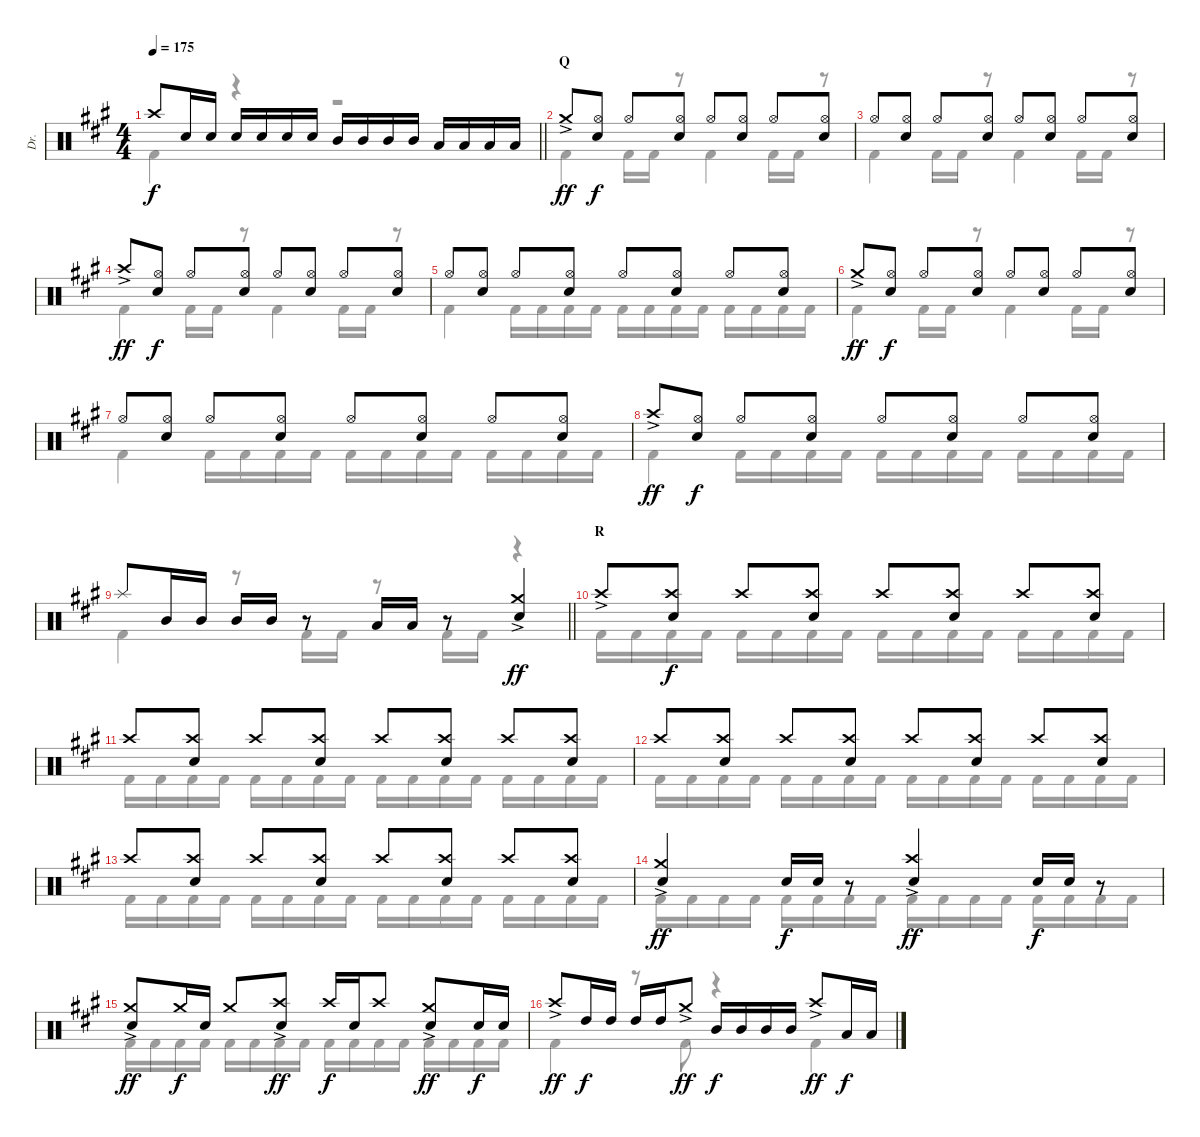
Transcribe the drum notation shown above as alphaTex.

\track ("Dr." "Dr.") {instrument percussion}
\staff {score}
\articulation defaults
\voice
\ts (4 4)
\tempo 175
\clef neutral
\barLineRight lightlight
\ks f#minor "Crash high (hit)".8{dy f} "Electric Snare (hit)".16 "Electric Snare (hit)".16 "Electric Snare (hit)".16 "Electric Snare (hit)".16 "Electric Snare (hit)".16 "Electric Snare (hit)".16 "Mid Tom (hit)".16 "Mid Tom (hit)".16 "Mid Tom (hit)".16 "Mid Tom (hit)".16 "Low Tom (hit)".16 "Low Tom (hit)".16 "Low Tom (hit)".16 "Low Tom (hit)".16
|
\section ("" "Q")
"Crash medium (hit)"{ac}.8{dy ff} ("Hi-Hat (open)" "Electric Snare (hit)").8{dy f} "Hi-Hat (open)".8 ("Hi-Hat (open)" "Electric Snare (hit)").8 "Hi-Hat (open)".8 ("Hi-Hat (open)" "Electric Snare (hit)").8 "Hi-Hat (open)".8 ("Hi-Hat (open)" "Electric Snare (hit)").8 |
"Hi-Hat (open)".8 ("Hi-Hat (open)" "Electric Snare (hit)").8 "Hi-Hat (open)".8 ("Hi-Hat (open)" "Electric Snare (hit)").8 "Hi-Hat (open)".8 ("Hi-Hat (open)" "Electric Snare (hit)").8 "Hi-Hat (open)".8 ("Hi-Hat (open)" "Electric Snare (hit)").8 |
"Crash high (hit)"{ac}.8{dy ff} ("Hi-Hat (open)" "Electric Snare (hit)").8{dy f} "Hi-Hat (open)".8 ("Hi-Hat (open)" "Electric Snare (hit)").8 "Hi-Hat (open)".8 ("Hi-Hat (open)" "Electric Snare (hit)").8 "Hi-Hat (open)".8 ("Hi-Hat (open)" "Electric Snare (hit)").8 |
"Hi-Hat (open)".8 ("Hi-Hat (open)" "Electric Snare (hit)").8 "Hi-Hat (open)".8 ("Hi-Hat (open)" "Electric Snare (hit)").8 "Hi-Hat (open)".8 ("Hi-Hat (open)" "Electric Snare (hit)").8 "Hi-Hat (open)".8 ("Hi-Hat (open)" "Electric Snare (hit)").8 |
"Crash medium (hit)"{ac}.8{dy ff} ("Hi-Hat (open)" "Electric Snare (hit)").8{dy f} "Hi-Hat (open)".8 ("Hi-Hat (open)" "Electric Snare (hit)").8 "Hi-Hat (open)".8 ("Hi-Hat (open)" "Electric Snare (hit)").8 "Hi-Hat (open)".8 ("Hi-Hat (open)" "Electric Snare (hit)").8 |
"Hi-Hat (open)".8 ("Hi-Hat (open)" "Electric Snare (hit)").8 "Hi-Hat (open)".8 ("Hi-Hat (open)" "Electric Snare (hit)").8 "Hi-Hat (open)".8 ("Hi-Hat (open)" "Electric Snare (hit)").8 "Hi-Hat (open)".8 ("Hi-Hat (open)" "Electric Snare (hit)").8 |
"Crash high (hit)"{ac}.8{dy ff} ("Hi-Hat (open)" "Electric Snare (hit)").8{dy f} "Hi-Hat (open)".8 ("Hi-Hat (open)" "Electric Snare (hit)").8 "Hi-Hat (open)".8 ("Hi-Hat (open)" "Electric Snare (hit)").8 "Hi-Hat (open)".8 ("Hi-Hat (open)" "Electric Snare (hit)").8 |
\barLineRight lightlight "Splash (hit)".8 "Mid Tom (hit)".16 "Mid Tom (hit)".16 "Mid Tom (hit)".16 "Mid Tom (hit)".16
r.8 "Low Tom (hit)".16 "Low Tom (hit)".16 r.8 ("Crash medium (hit)"{ac} "Electric Snare (hit)").4{dy ff} |
\section ("" "R")
"Crash high (hit)"{ac}.8 ("Crash high (hit)" "Electric Snare (hit)").8{dy f} "Crash high (hit)".8 ("Crash high (hit)" "Electric Snare (hit)").8 "Crash high (hit)".8 ("Crash high (hit)" "Electric Snare (hit)").8 "Crash high (hit)".8 ("Crash high (hit)" "Electric Snare (hit)").8 |
"Crash high (hit)".8 ("Crash high (hit)" "Electric Snare (hit)").8 "Crash high (hit)".8 ("Crash high (hit)" "Electric Snare (hit)").8 "Crash high (hit)".8 ("Crash high (hit)" "Electric Snare (hit)").8 "Crash high (hit)".8 ("Crash high (hit)" "Electric Snare (hit)").8 |
"Crash high (hit)".8 ("Crash high (hit)" "Electric Snare (hit)").8 "Crash high (hit)".8 ("Crash high (hit)" "Electric Snare (hit)").8 "Crash high (hit)".8 ("Crash high (hit)" "Electric Snare (hit)").8 "Crash high (hit)".8 ("Crash high (hit)" "Electric Snare (hit)").8 |
"Crash high (hit)".8 ("Crash high (hit)" "Electric Snare (hit)").8 "Crash high (hit)".8 ("Crash high (hit)" "Electric Snare (hit)").8 "Crash high (hit)".8 ("Crash high (hit)" "Electric Snare (hit)").8 "Crash high (hit)".8 ("Crash high (hit)" "Electric Snare (hit)").8 |
("Crash medium (hit)"{ac} "Electric Snare (hit)").4{dy ff} "Electric Snare (hit)".16{dy f} "Electric Snare (hit)".16 r.8 ("Crash high (hit)"{ac} "Electric Snare (hit)").4{dy ff} "Electric Snare (hit)".16{dy f} "Electric Snare (hit)".16 r.8 |
("Crash medium (hit)"{ac} "Electric Snare (hit)").8{dy ff} "Crash medium (hit)".16{dy f} "Electric Snare (hit)".16 "Crash medium (hit)".8 ("Crash high (hit)"{ac} "Electric Snare (hit)").8{dy ff} "Crash high (hit)".16{dy f} "Electric Snare (hit)".16 "Crash high (hit)".8 ("Crash medium (hit)"{ac} "Electric Snare (hit)").8{dy ff} "Electric Snare (hit)".16{dy f} "Electric Snare (hit)".16 |
"Crash high (hit)"{ac}.8{dy ff} "High Tom (hit)".16{dy f} "High Tom (hit)".16 "High Tom (hit)".16 "High Tom (hit)".16 "Crash medium (hit)"{ac}.8{dy ff} "Mid Tom (hit)".16{dy f} "Mid Tom (hit)".16 "Mid Tom (hit)".16 "Mid Tom (hit)".16 "Crash high (hit)"{ac}.8{dy ff} "Low Tom (hit)".16{dy f} "Low Tom (hit)".16
\voice
\clef neutral
\ottava regular
\simile none
\barLineRight lightlight
\ks f#minor "Kick (hit) 2".4{dy f}
r.4 r.2 |
"Kick (hit) 2".4 "Kick (hit) 2".16 "Kick (hit) 2".16 r.8 "Kick (hit) 2".4 "Kick (hit) 2".16 "Kick (hit) 2".16 r.8 |
"Kick (hit) 2".4 "Kick (hit) 2".16 "Kick (hit) 2".16 r.8 "Kick (hit) 2".4 "Kick (hit) 2".16 "Kick (hit) 2".16 r.8 |
"Kick (hit) 2".4 "Kick (hit) 2".16 "Kick (hit) 2".16 r.8 "Kick (hit) 2".4 "Kick (hit) 2".16 "Kick (hit) 2".16 r.8 |
"Kick (hit) 2".4 "Kick (hit) 2".16 "Kick (hit) 2".16 "Kick (hit) 2".16 "Kick (hit) 2".16 "Kick (hit) 2".16 "Kick (hit) 2".16 "Kick (hit) 2".16 "Kick (hit) 2".16 "Kick (hit) 2".16 "Kick (hit) 2".16 "Kick (hit) 2".16 "Kick (hit) 2".16 |
"Kick (hit) 2".4 "Kick (hit) 2".16 "Kick (hit) 2".16 r.8 "Kick (hit) 2".4 "Kick (hit) 2".16 "Kick (hit) 2".16 r.8 |
"Kick (hit) 2".4 "Kick (hit) 2".16 "Kick (hit) 2".16 "Kick (hit) 2".16 "Kick (hit) 2".16 "Kick (hit) 2".16 "Kick (hit) 2".16 "Kick (hit) 2".16 "Kick (hit) 2".16 "Kick (hit) 2".16 "Kick (hit) 2".16 "Kick (hit) 2".16 "Kick (hit) 2".16 |
"Kick (hit) 2".4 "Kick (hit) 2".16 "Kick (hit) 2".16 "Kick (hit) 2".16 "Kick (hit) 2".16 "Kick (hit) 2".16 "Kick (hit) 2".16 "Kick (hit) 2".16 "Kick (hit) 2".16 "Kick (hit) 2".16 "Kick (hit) 2".16 "Kick (hit) 2".16 "Kick (hit) 2".16 |
\barLineRight lightlight "Kick (hit) 2".4
r.8 "Kick (hit) 2".16 "Kick (hit) 2".16 r.8 "Kick (hit) 2".16 "Kick (hit) 2".16 r.4 |
"Kick (hit) 2".16 "Kick (hit) 2".16 "Kick (hit) 2".16 "Kick (hit) 2".16 "Kick (hit) 2".16 "Kick (hit) 2".16 "Kick (hit) 2".16 "Kick (hit) 2".16 "Kick (hit) 2".16 "Kick (hit) 2".16 "Kick (hit) 2".16 "Kick (hit) 2".16 "Kick (hit) 2".16 "Kick (hit) 2".16 "Kick (hit) 2".16 "Kick (hit) 2".16 |
"Kick (hit) 2".16 "Kick (hit) 2".16 "Kick (hit) 2".16 "Kick (hit) 2".16 "Kick (hit) 2".16 "Kick (hit) 2".16 "Kick (hit) 2".16 "Kick (hit) 2".16 "Kick (hit) 2".16 "Kick (hit) 2".16 "Kick (hit) 2".16 "Kick (hit) 2".16 "Kick (hit) 2".16 "Kick (hit) 2".16 "Kick (hit) 2".16 "Kick (hit) 2".16 |
"Kick (hit) 2".16 "Kick (hit) 2".16 "Kick (hit) 2".16 "Kick (hit) 2".16 "Kick (hit) 2".16 "Kick (hit) 2".16 "Kick (hit) 2".16 "Kick (hit) 2".16 "Kick (hit) 2".16 "Kick (hit) 2".16 "Kick (hit) 2".16 "Kick (hit) 2".16 "Kick (hit) 2".16 "Kick (hit) 2".16 "Kick (hit) 2".16 "Kick (hit) 2".16 |
"Kick (hit) 2".16 "Kick (hit) 2".16 "Kick (hit) 2".16 "Kick (hit) 2".16 "Kick (hit) 2".16 "Kick (hit) 2".16 "Kick (hit) 2".16 "Kick (hit) 2".16 "Kick (hit) 2".16 "Kick (hit) 2".16 "Kick (hit) 2".16 "Kick (hit) 2".16 "Kick (hit) 2".16 "Kick (hit) 2".16 "Kick (hit) 2".16 "Kick (hit) 2".16 |
"Kick (hit) 2".16 "Kick (hit) 2".16 "Kick (hit) 2".16 "Kick (hit) 2".16 "Kick (hit) 2".16 "Kick (hit) 2".16 "Kick (hit) 2".16 "Kick (hit) 2".16 "Kick (hit) 2".16 "Kick (hit) 2".16 "Kick (hit) 2".16 "Kick (hit) 2".16 "Kick (hit) 2".16 "Kick (hit) 2".16 "Kick (hit) 2".16 "Kick (hit) 2".16 |
"Kick (hit) 2".16 "Kick (hit) 2".16 "Kick (hit) 2".16 "Kick (hit) 2".16 "Kick (hit) 2".16 "Kick (hit) 2".16 "Kick (hit) 2".16 "Kick (hit) 2".16 "Kick (hit) 2".16 "Kick (hit) 2".16 "Kick (hit) 2".16 "Kick (hit) 2".16 "Kick (hit) 2".16 "Kick (hit) 2".16 "Kick (hit) 2".16 "Kick (hit) 2".16 |
"Kick (hit) 2".4 r.8 "Kick (hit) 2".8 r.4 "Kick (hit) 2".4
